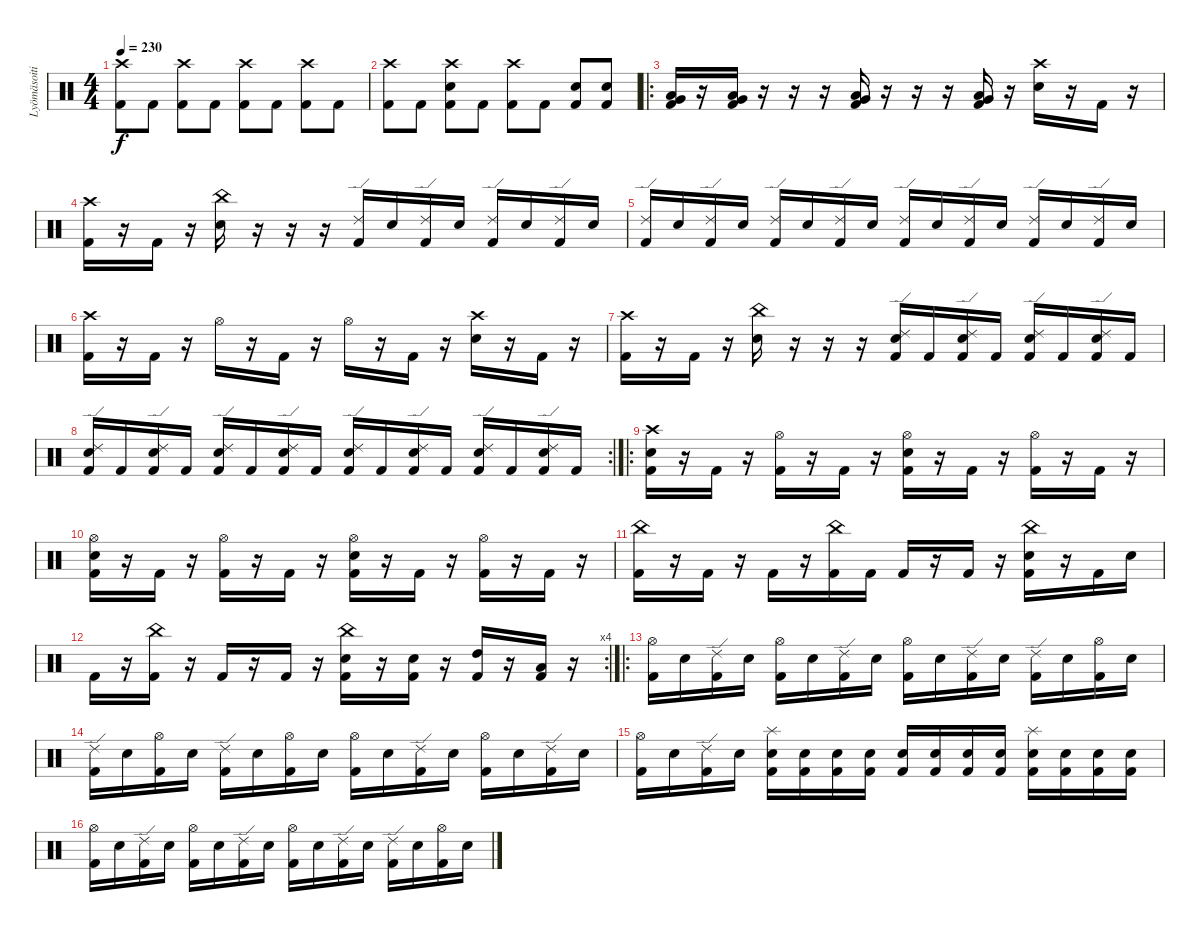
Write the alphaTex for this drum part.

\track ("Lyömäsoitin" "Lyömäsoiti") {instrument percussion}
\staff {score}
\articulation defaults
\ts (4 4)
\tempo 230
\clef neutral
\ks c
("Crash high (hit)" "Kick (hit) 2").8{dy f} "Kick (hit) 2".8 ("Crash high (hit)" "Kick (hit) 2").8 "Kick (hit) 2".8 ("Crash high (hit)" "Kick (hit) 2").8 "Kick (hit) 2".8 ("Crash high (hit)" "Kick (hit) 2").8 "Kick (hit) 2".8 |
("Crash high (hit)" "Kick (hit) 2").8 "Kick (hit) 2".8 ("Crash high (hit)" "Snare (hit) 2" "Kick (hit) 2").8 "Kick (hit) 2".8 ("Crash high (hit)" "Kick (hit) 2").8 "Kick (hit) 2".8 ("Snare (hit) 2" "Kick (hit) 2").8 ("Snare (hit) 2" "Kick (hit) 2").8 |
\ro
("Very Low Tom (hit)" "Low Floor Tom (hit)" "Kick (hit) 2").16 r.16 ("Very Low Tom (hit)" "Low Floor Tom (hit)" "Kick (hit) 2").16 r.16 r.16 r.16 ("Very Low Tom (hit)" "Low Floor Tom (hit)" "Kick (hit) 2").16 r.16 r.16 r.16 ("Very Low Tom (hit)" "Low Floor Tom (hit)" "Kick (hit) 2").16 r.16 ("Crash high (hit)" "Snare (hit) 2").16 r.16 "Kick (hit) 2".16 r.16 |
("Crash high (hit)" "Kick (hit) 2").16 r.16 "Kick (hit) 2".16 r.16 ("China (hit)" "Snare (hit) 2").16 r.16 r.16 r.16 ("Ride (edge) 2" "Kick (hit) 2").16 "Snare (hit) 2".16 ("Ride (edge) 2" "Kick (hit) 2").16 "Snare (hit) 2".16 ("Ride (edge) 2" "Kick (hit) 2").16 "Snare (hit) 2".16 ("Ride (edge) 2" "Kick (hit) 2").16 "Snare (hit) 2".16 |
("Ride (edge) 2" "Kick (hit) 2").16 "Snare (hit) 2".16 ("Ride (edge) 2" "Kick (hit) 2").16 "Snare (hit) 2".16 ("Ride (edge) 2" "Kick (hit) 2").16 "Snare (hit) 2".16 ("Ride (edge) 2" "Kick (hit) 2").16 "Snare (hit) 2".16 ("Ride (edge) 2" "Kick (hit) 2").16 "Snare (hit) 2".16 ("Ride (edge) 2" "Kick (hit) 2").16 "Snare (hit) 2".16 ("Ride (edge) 2" "Kick (hit) 2").16 "Snare (hit) 2".16 ("Ride (edge) 2" "Kick (hit) 2").16 "Snare (hit) 2".16 |
("Crash high (hit)" "Kick (hit) 2").16 r.16 "Kick (hit) 2".16 r.16 "Hi-Hat (open)".16 r.16 "Kick (hit) 2".16 r.16 "Hi-Hat (open)".16 r.16 "Kick (hit) 2".16 r.16 ("Crash high (hit)" "Snare (hit) 2").16 r.16 "Kick (hit) 2".16 r.16 |
("Crash high (hit)" "Kick (hit) 2").16 r.16 "Kick (hit) 2".16 r.16 ("China (hit)" "Snare (hit) 2").16 r.16 r.16 r.16 ("Ride (edge) 2" "Snare (hit) 2" "Kick (hit) 2").16 "Kick (hit) 2".16 ("Ride (edge) 2" "Snare (hit) 2" "Kick (hit) 2").16 "Kick (hit) 2".16 ("Ride (edge) 2" "Snare (hit) 2" "Kick (hit) 2").16 "Kick (hit) 2".16 ("Ride (edge) 2" "Snare (hit) 2" "Kick (hit) 2").16 "Kick (hit) 2".16 |
\rc 2
("Ride (edge) 2" "Snare (hit) 2" "Kick (hit) 2").16 "Kick (hit) 2".16 ("Ride (edge) 2" "Snare (hit) 2" "Kick (hit) 2").16 "Kick (hit) 2".16 ("Ride (edge) 2" "Snare (hit) 2" "Kick (hit) 2").16 "Kick (hit) 2".16 ("Ride (edge) 2" "Snare (hit) 2" "Kick (hit) 2").16 "Kick (hit) 2".16 ("Ride (edge) 2" "Snare (hit) 2" "Kick (hit) 2").16 "Kick (hit) 2".16 ("Ride (edge) 2" "Snare (hit) 2" "Kick (hit) 2").16 "Kick (hit) 2".16 ("Ride (edge) 2" "Snare (hit) 2" "Kick (hit) 2").16 "Kick (hit) 2".16 ("Ride (edge) 2" "Snare (hit) 2" "Kick (hit) 2").16 "Kick (hit) 2".16 |
\ro
("Crash high (hit)" "Snare (hit) 2" "Kick (hit) 2").16 r.16 "Kick (hit) 2".16 r.16 ("Hi-Hat (open)" "Kick (hit) 2").16 r.16 "Kick (hit) 2".16 r.16 ("Hi-Hat (open)" "Snare (hit) 2" "Kick (hit) 2").16 r.16 "Kick (hit) 2".16 r.16 ("Hi-Hat (open)" "Kick (hit) 2").16 r.16 "Kick (hit) 2".16 r.16 |
("Hi-Hat (open)" "Snare (hit) 2" "Kick (hit) 2").16 r.16 "Kick (hit) 2".16 r.16 ("Hi-Hat (open)" "Kick (hit) 2").16 r.16 "Kick (hit) 2".16 r.16 ("Hi-Hat (open)" "Snare (hit) 2" "Kick (hit) 2").16 r.16 "Kick (hit) 2".16 r.16 ("Hi-Hat (open)" "Kick (hit) 2").16 r.16 "Kick (hit) 2".16 r.16 |
("China (hit)" "Kick (hit) 2").16 r.16 "Kick (hit) 2".16 r.16 "Kick (hit) 2".16 r.16 ("China (hit)" "Kick (hit) 2").16 "Kick (hit) 2".16 "Kick (hit) 2".16 r.16 "Kick (hit) 2".16 r.16 ("China (hit)" "Snare (hit) 2" "Kick (hit) 2").16 r.16 "Kick (hit) 2".16 "Snare (hit) 2".16 |
\rc 4 "Kick (hit) 2".16
r.16 ("China (hit)" "Kick (hit) 2").16 r.16 "Kick (hit) 2".16 r.16 "Kick (hit) 2".16 r.16 ("China (hit)" "Snare (hit) 2" "Kick (hit) 2").16 r.16 ("Snare (hit) 2" "Kick (hit) 2").16 r.16 ("High Tom (hit)" "Kick (hit) 2").16 r.16 ("Low Tom (hit)" "Kick (hit) 2").16 r.16 |
\ro
("Hi-Hat (open)" "Kick (hit) 2").16 "Snare (hit) 2".16 ("Ride (edge) 2" "Kick (hit) 2").16 "Snare (hit) 2".16 ("Hi-Hat (open)" "Kick (hit) 2").16 "Snare (hit) 2".16 ("Ride (edge) 2" "Kick (hit) 2").16 "Snare (hit) 2".16 ("Hi-Hat (open)" "Kick (hit) 2").16 "Snare (hit) 2".16 ("Ride (edge) 2" "Kick (hit) 2").16 "Snare (hit) 2".16 ("Ride (edge) 2" "Kick (hit) 2").16 "Snare (hit) 2".16 ("Hi-Hat (open)" "Kick (hit) 2").16 "Snare (hit) 2".16 |
("Ride (edge) 2" "Kick (hit) 2").16 "Snare (hit) 2".16 ("Hi-Hat (open)" "Kick (hit) 2").16 "Snare (hit) 2".16 ("Ride (edge) 2" "Kick (hit) 2").16 "Snare (hit) 2".16 ("Hi-Hat (open)" "Kick (hit) 2").16 "Snare (hit) 2".16 ("Hi-Hat (open)" "Kick (hit) 2").16 "Snare (hit) 2".16 ("Ride (edge) 2" "Kick (hit) 2").16 "Snare (hit) 2".16 ("Hi-Hat (open)" "Kick (hit) 2").16 "Snare (hit) 2".16 ("Ride (edge) 2" "Kick (hit) 2").16 "Snare (hit) 2".16 |
("Hi-Hat (open)" "Kick (hit) 2").16 "Snare (hit) 2".16 ("Ride (edge) 2" "Kick (hit) 2").16 "Snare (hit) 2".16 ("Splash (hit)" "Snare (hit) 2" "Kick (hit) 2").16 ("Snare (hit) 2" "Kick (hit) 2").16 ("Snare (hit) 2" "Kick (hit) 2").16 ("Snare (hit) 2" "Kick (hit) 2").16 ("Snare (hit) 2" "Kick (hit) 2").16 ("Snare (hit) 2" "Kick (hit) 2").16 ("Snare (hit) 2" "Kick (hit) 2").16 ("Snare (hit) 2" "Kick (hit) 2").16 ("Splash (hit)" "Snare (hit) 2" "Kick (hit) 2").16 ("Snare (hit) 2" "Kick (hit) 2").16 ("Snare (hit) 2" "Kick (hit) 2").16 ("Snare (hit) 2" "Kick (hit) 2").16 |
("Hi-Hat (open)" "Kick (hit) 2").16 "Snare (hit) 2".16 ("Ride (edge) 2" "Kick (hit) 2").16 "Snare (hit) 2".16 ("Hi-Hat (open)" "Kick (hit) 2").16 "Snare (hit) 2".16 ("Ride (edge) 2" "Kick (hit) 2").16 "Snare (hit) 2".16 ("Hi-Hat (open)" "Kick (hit) 2").16 "Snare (hit) 2".16 ("Ride (edge) 2" "Kick (hit) 2").16 "Snare (hit) 2".16 ("Ride (edge) 2" "Kick (hit) 2").16 "Snare (hit) 2".16 ("Hi-Hat (open)" "Kick (hit) 2").16 "Snare (hit) 2".16
